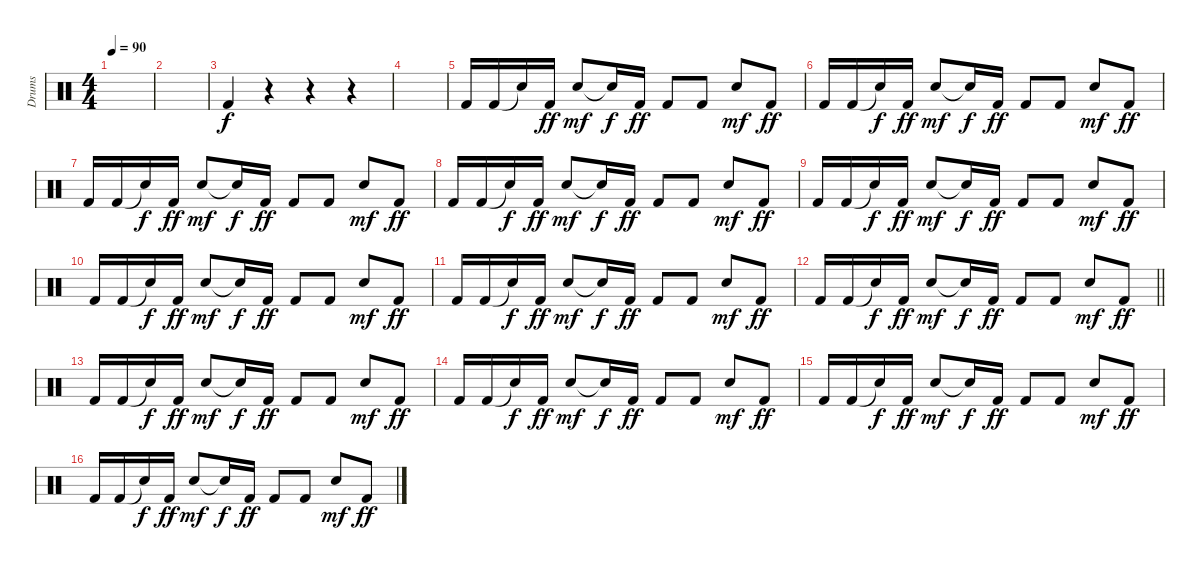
\track ("Drums" "Drums") {instrument percussion}
\staff {score}
\articulation defaults
\ts (4 4)
\tempo 90
\clef neutral
\ks c
|
|
"Kick (hit) 2".4 r.4 r.4 r.4 |
|
"Kick (hit) 2".16 "Kick (hit) 2".16 "Snare (hit)"{t}.16{dy f} "Kick (hit) 2".16{dy ff} "Snare (hit) 2".8{dy mf} "Snare (hit)"{t}.16{dy f} "Kick (hit) 2".16{dy ff} "Kick (hit) 2".8 "Kick (hit) 2".8 "Snare (hit) 2".8{dy mf} "Kick (hit) 2".8{dy ff} |
"Kick (hit) 2".16 "Kick (hit) 2".16 "Snare (hit)"{t}.16{dy f} "Kick (hit) 2".16{dy ff} "Snare (hit) 2".8{dy mf} "Snare (hit)"{t}.16{dy f} "Kick (hit) 2".16{dy ff} "Kick (hit) 2".8 "Kick (hit) 2".8 "Snare (hit) 2".8{dy mf} "Kick (hit) 2".8{dy ff} |
"Kick (hit) 2".16 "Kick (hit) 2".16 "Snare (hit)"{t}.16{dy f} "Kick (hit) 2".16{dy ff} "Snare (hit) 2".8{dy mf} "Snare (hit)"{t}.16{dy f} "Kick (hit) 2".16{dy ff} "Kick (hit) 2".8 "Kick (hit) 2".8 "Snare (hit) 2".8{dy mf} "Kick (hit) 2".8{dy ff} |
"Kick (hit) 2".16 "Kick (hit) 2".16 "Snare (hit)"{t}.16{dy f} "Kick (hit) 2".16{dy ff} "Snare (hit) 2".8{dy mf} "Snare (hit)"{t}.16{dy f} "Kick (hit) 2".16{dy ff} "Kick (hit) 2".8 "Kick (hit) 2".8 "Snare (hit) 2".8{dy mf} "Kick (hit) 2".8{dy ff} |
"Kick (hit) 2".16 "Kick (hit) 2".16 "Snare (hit)"{t}.16{dy f} "Kick (hit) 2".16{dy ff} "Snare (hit) 2".8{dy mf} "Snare (hit)"{t}.16{dy f} "Kick (hit) 2".16{dy ff} "Kick (hit) 2".8 "Kick (hit) 2".8 "Snare (hit) 2".8{dy mf} "Kick (hit) 2".8{dy ff} |
"Kick (hit) 2".16 "Kick (hit) 2".16 "Snare (hit)"{t}.16{dy f} "Kick (hit) 2".16{dy ff} "Snare (hit) 2".8{dy mf} "Snare (hit)"{t}.16{dy f} "Kick (hit) 2".16{dy ff} "Kick (hit) 2".8 "Kick (hit) 2".8 "Snare (hit) 2".8{dy mf} "Kick (hit) 2".8{dy ff} |
"Kick (hit) 2".16 "Kick (hit) 2".16 "Snare (hit)"{t}.16{dy f} "Kick (hit) 2".16{dy ff} "Snare (hit) 2".8{dy mf} "Snare (hit)"{t}.16{dy f} "Kick (hit) 2".16{dy ff} "Kick (hit) 2".8 "Kick (hit) 2".8 "Snare (hit) 2".8{dy mf} "Kick (hit) 2".8{dy ff} |
\barLineRight lightlight "Kick (hit) 2".16 "Kick (hit) 2".16 "Snare (hit)"{t}.16{dy f} "Kick (hit) 2".16{dy ff} "Snare (hit) 2".8{dy mf} "Snare (hit)"{t}.16{dy f} "Kick (hit) 2".16{dy ff} "Kick (hit) 2".8 "Kick (hit) 2".8 "Snare (hit) 2".8{dy mf} "Kick (hit) 2".8{dy ff}
|
\section ("" "")
"Kick (hit) 2".16 "Kick (hit) 2".16 "Snare (hit)"{t}.16{dy f} "Kick (hit) 2".16{dy ff} "Snare (hit) 2".8{dy mf} "Snare (hit)"{t}.16{dy f} "Kick (hit) 2".16{dy ff} "Kick (hit) 2".8 "Kick (hit) 2".8 "Snare (hit) 2".8{dy mf} "Kick (hit) 2".8{dy ff} |
"Kick (hit) 2".16 "Kick (hit) 2".16 "Snare (hit)"{t}.16{dy f} "Kick (hit) 2".16{dy ff} "Snare (hit) 2".8{dy mf} "Snare (hit)"{t}.16{dy f} "Kick (hit) 2".16{dy ff} "Kick (hit) 2".8 "Kick (hit) 2".8 "Snare (hit) 2".8{dy mf} "Kick (hit) 2".8{dy ff} |
"Kick (hit) 2".16 "Kick (hit) 2".16 "Snare (hit)"{t}.16{dy f} "Kick (hit) 2".16{dy ff} "Snare (hit) 2".8{dy mf} "Snare (hit)"{t}.16{dy f} "Kick (hit) 2".16{dy ff} "Kick (hit) 2".8 "Kick (hit) 2".8 "Snare (hit) 2".8{dy mf} "Kick (hit) 2".8{dy ff} |
"Kick (hit) 2".16 "Kick (hit) 2".16 "Snare (hit)"{t}.16{dy f} "Kick (hit) 2".16{dy ff} "Snare (hit) 2".8{dy mf} "Snare (hit)"{t}.16{dy f} "Kick (hit) 2".16{dy ff} "Kick (hit) 2".8 "Kick (hit) 2".8 "Snare (hit) 2".8{dy mf} "Kick (hit) 2".8{dy ff}
